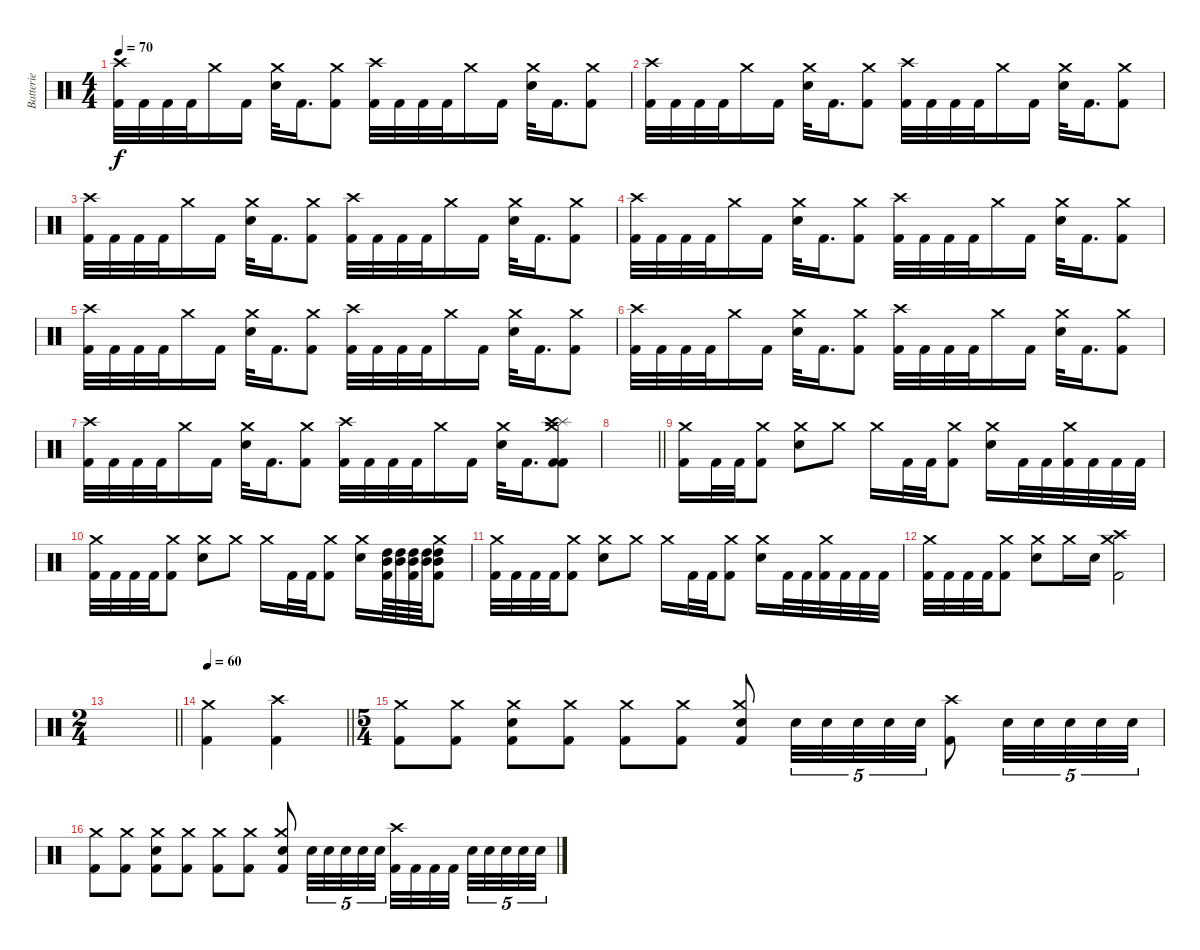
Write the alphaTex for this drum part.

\track ("Batterie" "Batterie") {instrument percussion}
\staff {score}
\articulation defaults
\ts (4 4)
\tempo 70
\clef neutral
\ks c
("Crash high (hit)" "Kick (hit) 2").32{dy f} "Kick (hit) 2".32 "Kick (hit) 2".32 "Kick (hit) 2".32 "Crash medium (hit)".16 "Kick (hit) 2".16 ("Crash medium (hit)" "Snare (hit) 2").32 "Kick (hit) 2".16{d} ("Crash medium (hit)" "Kick (hit) 2").8 ("Crash high (hit)" "Kick (hit) 2").32 "Kick (hit) 2".32 "Kick (hit) 2".32 "Kick (hit) 2".32 "Crash medium (hit)".16 "Kick (hit) 2".16 ("Crash medium (hit)" "Snare (hit) 2").32 "Kick (hit) 2".16{d} ("Crash medium (hit)" "Kick (hit) 2").8 |
("Crash high (hit)" "Kick (hit) 2").32 "Kick (hit) 2".32 "Kick (hit) 2".32 "Kick (hit) 2".32 "Crash medium (hit)".16 "Kick (hit) 2".16 ("Crash medium (hit)" "Snare (hit) 2").32 "Kick (hit) 2".16{d} ("Crash medium (hit)" "Kick (hit) 2").8 ("Crash high (hit)" "Kick (hit) 2").32 "Kick (hit) 2".32 "Kick (hit) 2".32 "Kick (hit) 2".32 "Crash medium (hit)".16 "Kick (hit) 2".16 ("Crash medium (hit)" "Snare (hit) 2").32 "Kick (hit) 2".16{d} ("Crash medium (hit)" "Kick (hit) 2").8 |
("Crash high (hit)" "Kick (hit) 2").32 "Kick (hit) 2".32 "Kick (hit) 2".32 "Kick (hit) 2".32 "Crash medium (hit)".16 "Kick (hit) 2".16 ("Crash medium (hit)" "Snare (hit) 2").32 "Kick (hit) 2".16{d} ("Crash medium (hit)" "Kick (hit) 2").8 ("Crash high (hit)" "Kick (hit) 2").32 "Kick (hit) 2".32 "Kick (hit) 2".32 "Kick (hit) 2".32 "Crash medium (hit)".16 "Kick (hit) 2".16 ("Crash medium (hit)" "Snare (hit) 2").32 "Kick (hit) 2".16{d} ("Crash medium (hit)" "Kick (hit) 2").8 |
("Crash high (hit)" "Kick (hit) 2").32 "Kick (hit) 2".32 "Kick (hit) 2".32 "Kick (hit) 2".32 "Crash medium (hit)".16 "Kick (hit) 2".16 ("Crash medium (hit)" "Snare (hit) 2").32 "Kick (hit) 2".16{d} ("Crash medium (hit)" "Kick (hit) 2").8 ("Crash high (hit)" "Kick (hit) 2").32 "Kick (hit) 2".32 "Kick (hit) 2".32 "Kick (hit) 2".32 "Crash medium (hit)".16 "Kick (hit) 2".16 ("Crash medium (hit)" "Snare (hit) 2").32 "Kick (hit) 2".16{d} ("Crash medium (hit)" "Kick (hit) 2").8 |
("Crash high (hit)" "Kick (hit) 2").32 "Kick (hit) 2".32 "Kick (hit) 2".32 "Kick (hit) 2".32 "Crash medium (hit)".16 "Kick (hit) 2".16 ("Crash medium (hit)" "Snare (hit) 2").32 "Kick (hit) 2".16{d} ("Crash medium (hit)" "Kick (hit) 2").8 ("Crash high (hit)" "Kick (hit) 2").32 "Kick (hit) 2".32 "Kick (hit) 2".32 "Kick (hit) 2".32 "Crash medium (hit)".16 "Kick (hit) 2".16 ("Crash medium (hit)" "Snare (hit) 2").32 "Kick (hit) 2".16{d} ("Crash medium (hit)" "Kick (hit) 2").8 |
("Crash high (hit)" "Kick (hit) 2").32 "Kick (hit) 2".32 "Kick (hit) 2".32 "Kick (hit) 2".32 "Crash medium (hit)".16 "Kick (hit) 2".16 ("Crash medium (hit)" "Snare (hit) 2").32 "Kick (hit) 2".16{d} ("Crash medium (hit)" "Kick (hit) 2").8 ("Crash high (hit)" "Kick (hit) 2").32 "Kick (hit) 2".32 "Kick (hit) 2".32 "Kick (hit) 2".32 "Crash medium (hit)".16 "Kick (hit) 2".16 ("Crash medium (hit)" "Snare (hit) 2").32 "Kick (hit) 2".16{d} ("Crash medium (hit)" "Kick (hit) 2").8 |
("Crash high (hit)" "Kick (hit) 2").32 "Kick (hit) 2".32 "Kick (hit) 2".32 "Kick (hit) 2".32 "Crash medium (hit)".16 "Kick (hit) 2".16 ("Crash medium (hit)" "Snare (hit) 2").32 "Kick (hit) 2".16{d} ("Crash medium (hit)" "Kick (hit) 2").8 ("Crash high (hit)" "Kick (hit) 2").32 "Kick (hit) 2".32 "Kick (hit) 2".32 "Kick (hit) 2".32 "Crash medium (hit)".16 "Kick (hit) 2".16 ("Crash medium (hit)" "Snare (hit) 2").32 "Kick (hit) 2".16{d} ("Crash medium (hit)" "Splash (hit)" "Crash high (hit)" "Kick (hit) 2" "Kick (hit) 2").8 |
\barLineRight lightlight
|
\section ("" "")
("Crash medium (hit)" "Kick (hit) 2").16 "Kick (hit) 2".32 "Kick (hit) 2".32 ("Crash medium (hit)" "Kick (hit) 2").8 ("Crash medium (hit)" "Snare (hit) 2").8 "Crash medium (hit)".8 "Crash medium (hit)".16 "Kick (hit) 2".32 "Kick (hit) 2".32 ("Crash medium (hit)" "Kick (hit) 2").8 ("Crash medium (hit)" "Snare (hit) 2").16 "Kick (hit) 2".32 "Kick (hit) 2".32 ("Crash medium (hit)" "Kick (hit) 2").32 "Kick (hit) 2".32 "Kick (hit) 2".32 "Kick (hit) 2".32 |
("Crash medium (hit)" "Kick (hit) 2").32 "Kick (hit) 2".32 "Kick (hit) 2".32 "Kick (hit) 2".32 ("Crash medium (hit)" "Kick (hit) 2").8 ("Crash medium (hit)" "Snare (hit) 2").8 "Crash medium (hit)".8 "Crash medium (hit)".16 "Kick (hit) 2".32 "Kick (hit) 2".32 ("Crash medium (hit)" "Kick (hit) 2").8 ("Crash medium (hit)" "Snare (hit) 2").16 ("High Tom (hit)" "Mid Tom (hit)" "Kick (hit) 2").64 ("High Tom (hit)" "Mid Tom (hit)").64 ("High Tom (hit)" "Mid Tom (hit)" "Kick (hit) 2").64 ("High Tom (hit)" "Mid Tom (hit)").64 ("Crash medium (hit)" "High Tom (hit)" "Mid Tom (hit)" "Kick (hit) 2").8 |
("Crash medium (hit)" "Kick (hit) 2").32 "Kick (hit) 2".32 "Kick (hit) 2".32 "Kick (hit) 2".32 ("Crash medium (hit)" "Kick (hit) 2").8 ("Crash medium (hit)" "Snare (hit) 2").8 "Crash medium (hit)".8 "Crash medium (hit)".16 "Kick (hit) 2".32 "Kick (hit) 2".32 ("Crash medium (hit)" "Kick (hit) 2").8 ("Crash medium (hit)" "Snare (hit) 2").16 "Kick (hit) 2".32 "Kick (hit) 2".32 ("Crash medium (hit)" "Kick (hit) 2").32 "Kick (hit) 2".32 "Kick (hit) 2".32 "Kick (hit) 2".32 |
("Crash medium (hit)" "Kick (hit) 2").32 "Kick (hit) 2".32 "Kick (hit) 2".32 "Kick (hit) 2".32 ("Crash medium (hit)" "Kick (hit) 2").8 ("Crash medium (hit)" "Snare (hit) 2").8 "Crash medium (hit)".16 "Snare (hit) 2".16 ("Crash medium (hit)" "Crash high (hit)" "Kick (hit) 2").2 |
\ts (2 4)
\barLineRight lightlight
|
\section ("" "")
\tempo 60
\barLineRight lightlight
("Crash medium (hit)" "Kick (hit) 2").4 ("Crash high (hit)" "Kick (hit) 2").4 |
\ts (5 4)
\section ("" "")
("Crash medium (hit)" "Kick (hit) 2").8 ("Crash medium (hit)" "Kick (hit) 2").8 ("Crash medium (hit)" "Snare (hit) 2" "Kick (hit) 2").8 ("Crash medium (hit)" "Kick (hit) 2").8 ("Crash medium (hit)" "Kick (hit) 2").8 ("Crash medium (hit)" "Kick (hit) 2").8 ("Crash medium (hit)" "Snare (hit) 2" "Kick (hit) 2").8 "Snare (hit) 2".32{tu (5 4)} "Snare (hit) 2".32{tu (5 4)} "Snare (hit) 2".32{tu (5 4)} "Snare (hit) 2".32{tu (5 4)} "Snare (hit) 2".32{tu (5 4)} ("Crash high (hit)" "Kick (hit) 2").8 "Snare (hit) 2".32{tu (5 4)} "Snare (hit) 2".32{tu (5 4)} "Snare (hit) 2".32{tu (5 4)} "Snare (hit) 2".32{tu (5 4)} "Snare (hit) 2".32{tu (5 4)} |
("Crash medium (hit)" "Kick (hit) 2").8 ("Crash medium (hit)" "Kick (hit) 2").8 ("Crash medium (hit)" "Snare (hit) 2" "Kick (hit) 2").8 ("Crash medium (hit)" "Kick (hit) 2").8 ("Crash medium (hit)" "Kick (hit) 2").8 ("Crash medium (hit)" "Kick (hit) 2").8 ("Crash medium (hit)" "Snare (hit) 2" "Kick (hit) 2").8 "Snare (hit) 2".32{tu (5 4)} "Snare (hit) 2".32{tu (5 4)} "Snare (hit) 2".32{tu (5 4)} "Snare (hit) 2".32{tu (5 4)} "Snare (hit) 2".32{tu (5 4)} ("Crash high (hit)" "Kick (hit) 2").32 "Kick (hit) 2".32 "Kick (hit) 2".32 "Kick (hit) 2".32{beam splitsecondary} "Snare (hit) 2".32{tu (5 4)} "Snare (hit) 2".32{tu (5 4)} "Snare (hit) 2".32{tu (5 4)} "Snare (hit) 2".32{tu (5 4)} "Snare (hit) 2".32{tu (5 4)}
